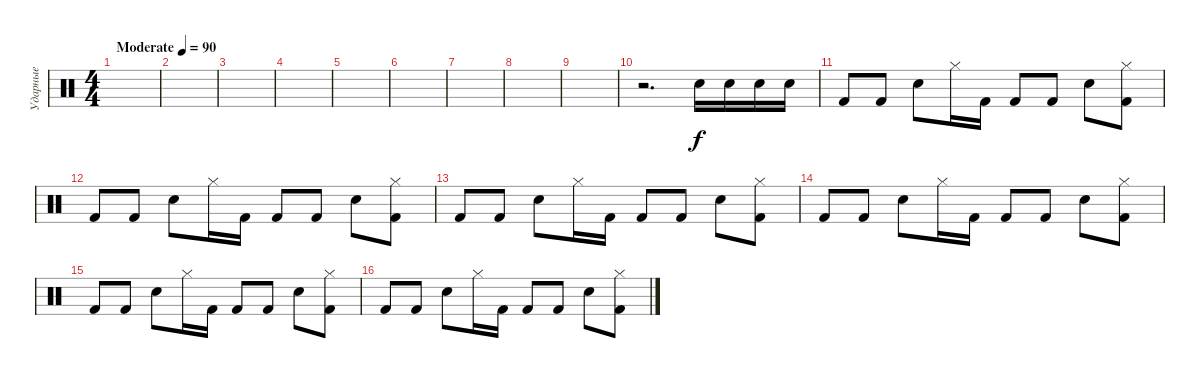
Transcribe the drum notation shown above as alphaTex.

\track ("Ударные" "Ударные") {instrument percussion}
\staff {score}
\articulation defaults
\ts (4 4)
\tempo (90 "Moderate")
\clef neutral
\ks c
|
|
|
|
|
|
|
|
|
r.2{d} "Electric Snare (hit)".16 "Electric Snare (hit)".16 "Electric Snare (hit)".16 "Electric Snare (hit)".16 |
"Kick (hit) 2".8 "Kick (hit) 2".8 "Electric Snare (hit)".8 "Hi-Hat (closed)".16 "Kick (hit) 2".16 "Kick (hit) 2".8 "Kick (hit) 2".8 "Electric Snare (hit)".8 ("Hi-Hat (closed)" "Kick (hit) 2").8 |
"Kick (hit) 2".8 "Kick (hit) 2".8 "Electric Snare (hit)".8 "Hi-Hat (closed)".16 "Kick (hit) 2".16 "Kick (hit) 2".8 "Kick (hit) 2".8 "Electric Snare (hit)".8 ("Hi-Hat (closed)" "Kick (hit) 2").8 |
"Kick (hit) 2".8 "Kick (hit) 2".8 "Electric Snare (hit)".8 "Hi-Hat (closed)".16 "Kick (hit) 2".16 "Kick (hit) 2".8 "Kick (hit) 2".8 "Electric Snare (hit)".8 ("Hi-Hat (closed)" "Kick (hit) 2").8 |
"Kick (hit) 2".8 "Kick (hit) 2".8 "Electric Snare (hit)".8 "Hi-Hat (closed)".16 "Kick (hit) 2".16 "Kick (hit) 2".8 "Kick (hit) 2".8 "Electric Snare (hit)".8 ("Hi-Hat (closed)" "Kick (hit) 2").8 |
"Kick (hit) 2".8 "Kick (hit) 2".8 "Electric Snare (hit)".8 "Hi-Hat (closed)".16 "Kick (hit) 2".16 "Kick (hit) 2".8 "Kick (hit) 2".8 "Electric Snare (hit)".8 ("Hi-Hat (closed)" "Kick (hit) 2").8 |
"Kick (hit) 2".8 "Kick (hit) 2".8 "Electric Snare (hit)".8 "Hi-Hat (closed)".16 "Kick (hit) 2".16 "Kick (hit) 2".8 "Kick (hit) 2".8 "Electric Snare (hit)".8 ("Hi-Hat (closed)" "Kick (hit) 2").8
